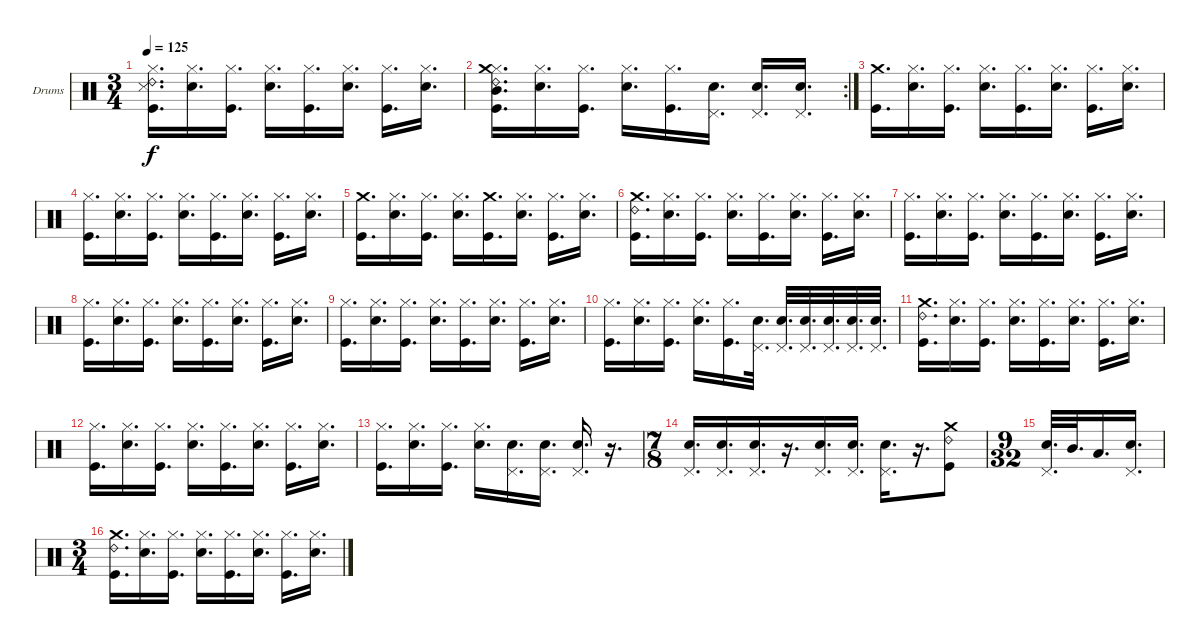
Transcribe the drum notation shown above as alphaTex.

\defaultSystemsLayout 4
\bracketExtendMode groupsimilarinstruments
\firstSystemTrackNameOrientation horizontal
\otherSystemsTrackNameOrientation horizontal
\track ("Drumkit" "Drums") {instrument percussion}
\staff {score}
\articulation defaults
\ts (3 4)
\tempo 125
\clef neutral
\ks c
("Kick (hit)" "Hi-Hat (closed)" "Ride (bell) 2" "Snare (side stick) 3").16{d dy f} ("Snare (hit) 2" "Hi-Hat (closed)").16{d} ("Kick (hit)" "Hi-Hat (closed)").16{d} ("Snare (hit) 2" "Hi-Hat (closed)").16{d} ("Kick (hit)" "Hi-Hat (closed)").16{d} ("Snare (hit) 2" "Hi-Hat (closed)").16{d} ("Kick (hit)" "Hi-Hat (closed)").16{d} ("Snare (hit) 2" "Hi-Hat (closed)").16{d} |
\rc 2
("Kick (hit)" "Hi-Hat (closed)" "Mid Tom (hit)" "Ride (bell) 2" "Crash medium (hit)").16{d} ("Snare (hit) 2" "Hi-Hat (closed)").16{d} ("Kick (hit)" "Hi-Hat (closed)").16{d} ("Snare (hit) 2" "Hi-Hat (closed)").16{d} ("Kick (hit)" "Hi-Hat (closed)").16{d} ("Pedal Hi-Hat (hit)" "Snare (hit) 2").16{d} ("Pedal Hi-Hat (hit)" "Snare (hit) 2").16{d} ("Pedal Hi-Hat (hit)" "Snare (hit) 2").16{d} |
("Kick (hit)" "Crash medium (hit)").16{d} ("Snare (hit) 2" "Hi-Hat (closed)").16{d} ("Kick (hit)" "Hi-Hat (closed)").16{d} ("Snare (hit) 2" "Hi-Hat (closed)").16{d} ("Kick (hit)" "Hi-Hat (closed)").16{d} ("Snare (hit) 2" "Hi-Hat (closed)").16{d} ("Kick (hit)" "Hi-Hat (closed)").16{d} ("Snare (hit) 2" "Hi-Hat (closed)").16{d} |
("Kick (hit)" "Hi-Hat (closed)").16{d} ("Snare (hit) 2" "Hi-Hat (closed)").16{d} ("Kick (hit)" "Hi-Hat (closed)").16{d} ("Snare (hit) 2" "Hi-Hat (closed)").16{d} ("Kick (hit)" "Hi-Hat (closed)").16{d} ("Snare (hit) 2" "Hi-Hat (closed)").16{d} ("Kick (hit)" "Hi-Hat (closed)").16{d} ("Snare (hit) 2" "Hi-Hat (closed)").16{d} |
("Kick (hit)" "Crash medium (hit)").16{d} ("Snare (hit) 2" "Hi-Hat (closed)").16{d} ("Kick (hit)" "Hi-Hat (closed)").16{d} ("Snare (hit) 2" "Hi-Hat (closed)").16{d} ("Kick (hit)" "Crash medium (hit)").16{d} ("Snare (hit) 2" "Hi-Hat (closed)").16{d} ("Kick (hit)" "Hi-Hat (closed)").16{d} ("Snare (hit) 2" "Hi-Hat (closed)").16{d} |
("Kick (hit)" "Crash medium (hit)" "Ride (bell) 2").16{d} ("Snare (hit) 2" "Hi-Hat (closed)").16{d} ("Kick (hit)" "Hi-Hat (closed)").16{d} ("Snare (hit) 2" "Hi-Hat (closed)").16{d} ("Kick (hit)" "Hi-Hat (closed)").16{d} ("Snare (hit) 2" "Hi-Hat (closed)").16{d} ("Kick (hit)" "Hi-Hat (closed)").16{d} ("Snare (hit) 2" "Hi-Hat (closed)").16{d} |
("Kick (hit)" "Hi-Hat (closed)").16{d} ("Snare (hit) 2" "Hi-Hat (closed)").16{d} ("Kick (hit)" "Hi-Hat (closed)").16{d} ("Snare (hit) 2" "Hi-Hat (closed)").16{d} ("Kick (hit)" "Hi-Hat (closed)").16{d} ("Snare (hit) 2" "Hi-Hat (closed)").16{d} ("Kick (hit)" "Hi-Hat (closed)").16{d} ("Snare (hit) 2" "Hi-Hat (closed)").16{d} |
("Kick (hit)" "Hi-Hat (closed)").16{d} ("Snare (hit) 2" "Hi-Hat (closed)").16{d} ("Kick (hit)" "Hi-Hat (closed)").16{d} ("Snare (hit) 2" "Hi-Hat (closed)").16{d} ("Kick (hit)" "Hi-Hat (closed)").16{d} ("Snare (hit) 2" "Hi-Hat (closed)").16{d} ("Kick (hit)" "Hi-Hat (closed)").16{d} ("Snare (hit) 2" "Hi-Hat (closed)").16{d} |
("Kick (hit)" "Hi-Hat (closed)").16{d} ("Snare (hit) 2" "Hi-Hat (closed)").16{d} ("Kick (hit)" "Hi-Hat (closed)").16{d} ("Snare (hit) 2" "Hi-Hat (closed)").16{d} ("Kick (hit)" "Hi-Hat (closed)").16{d} ("Snare (hit) 2" "Hi-Hat (closed)").16{d} ("Kick (hit)" "Hi-Hat (closed)").16{d} ("Snare (hit) 2" "Hi-Hat (closed)").16{d} |
("Kick (hit)" "Hi-Hat (closed)").16{d} ("Snare (hit) 2" "Hi-Hat (closed)").16{d} ("Kick (hit)" "Hi-Hat (closed)").16{d} ("Snare (hit) 2" "Hi-Hat (closed)").16{d} ("Kick (hit)" "Hi-Hat (closed)").16{d} ("Pedal Hi-Hat (hit)" "Snare (hit) 2").32{d} ("Pedal Hi-Hat (hit)" "Snare (hit) 2").32{d} ("Pedal Hi-Hat (hit)" "Snare (hit) 2").32{d} ("Pedal Hi-Hat (hit)" "Snare (hit) 2").32{d} ("Pedal Hi-Hat (hit)" "Snare (hit) 2").32{d} ("Pedal Hi-Hat (hit)" "Snare (hit) 2").32{d} |
("Kick (hit)" "Crash medium (hit)" "Ride (bell) 2").16{d} ("Snare (hit) 2" "Hi-Hat (closed)").16{d} ("Kick (hit)" "Hi-Hat (closed)").16{d} ("Snare (hit) 2" "Hi-Hat (closed)").16{d} ("Kick (hit)" "Hi-Hat (closed)").16{d} ("Snare (hit) 2" "Hi-Hat (closed)").16{d} ("Kick (hit)" "Hi-Hat (closed)").16{d} ("Snare (hit) 2" "Hi-Hat (closed)").16{d} |
("Kick (hit)" "Hi-Hat (closed)").16{d} ("Snare (hit) 2" "Hi-Hat (closed)").16{d} ("Kick (hit)" "Hi-Hat (closed)").16{d} ("Snare (hit) 2" "Hi-Hat (closed)").16{d} ("Kick (hit)" "Hi-Hat (closed)").16{d} ("Snare (hit) 2" "Hi-Hat (closed)").16{d} ("Kick (hit)" "Hi-Hat (closed)").16{d} ("Snare (hit) 2" "Hi-Hat (closed)").16{d} |
("Kick (hit)" "Hi-Hat (closed)").16{d} ("Snare (hit) 2" "Hi-Hat (closed)").16{d} ("Kick (hit)" "Hi-Hat (closed)").16{d} ("Snare (hit) 2" "Hi-Hat (closed)").16{d} ("Pedal Hi-Hat (hit)" "Snare (hit) 2").16{d} ("Pedal Hi-Hat (hit)" "Snare (hit) 2").16{d} ("Pedal Hi-Hat (hit)" "Snare (hit) 2").16{d} r.16{d} |
\ts (7 8)
("Pedal Hi-Hat (hit)" "Snare (hit) 2").16{d} ("Pedal Hi-Hat (hit)" "Snare (hit) 2").16{d} ("Pedal Hi-Hat (hit)" "Snare (hit) 2").16{d} r.16{d} ("Pedal Hi-Hat (hit)" "Snare (hit) 2").16{d} ("Pedal Hi-Hat (hit)" "Snare (hit) 2").16{d} ("Pedal Hi-Hat (hit)" "Snare (hit) 2").16{d} r.16{d} ("Kick (hit)" "Crash medium (hit)" "Ride (bell) 2").8 |
\ts (9 32)
("Pedal Hi-Hat (hit)" "Snare (hit) 2").32{d} "Mid Tom (hit)".32{d} "Low Tom (hit)".16{d} ("Pedal Hi-Hat (hit)" "Snare (hit) 2").16{d} |
\ts (3 4)
("Kick (hit)" "Crash medium (hit)" "Ride (bell) 2").16{d} ("Snare (hit) 2" "Hi-Hat (closed)").16{d} ("Kick (hit)" "Hi-Hat (closed)").16{d} ("Snare (hit) 2" "Hi-Hat (closed)").16{d} ("Kick (hit)" "Hi-Hat (closed)").16{d} ("Snare (hit) 2" "Hi-Hat (closed)").16{d} ("Kick (hit)" "Hi-Hat (closed)").16{d} ("Snare (hit) 2" "Hi-Hat (closed)").16{d}
